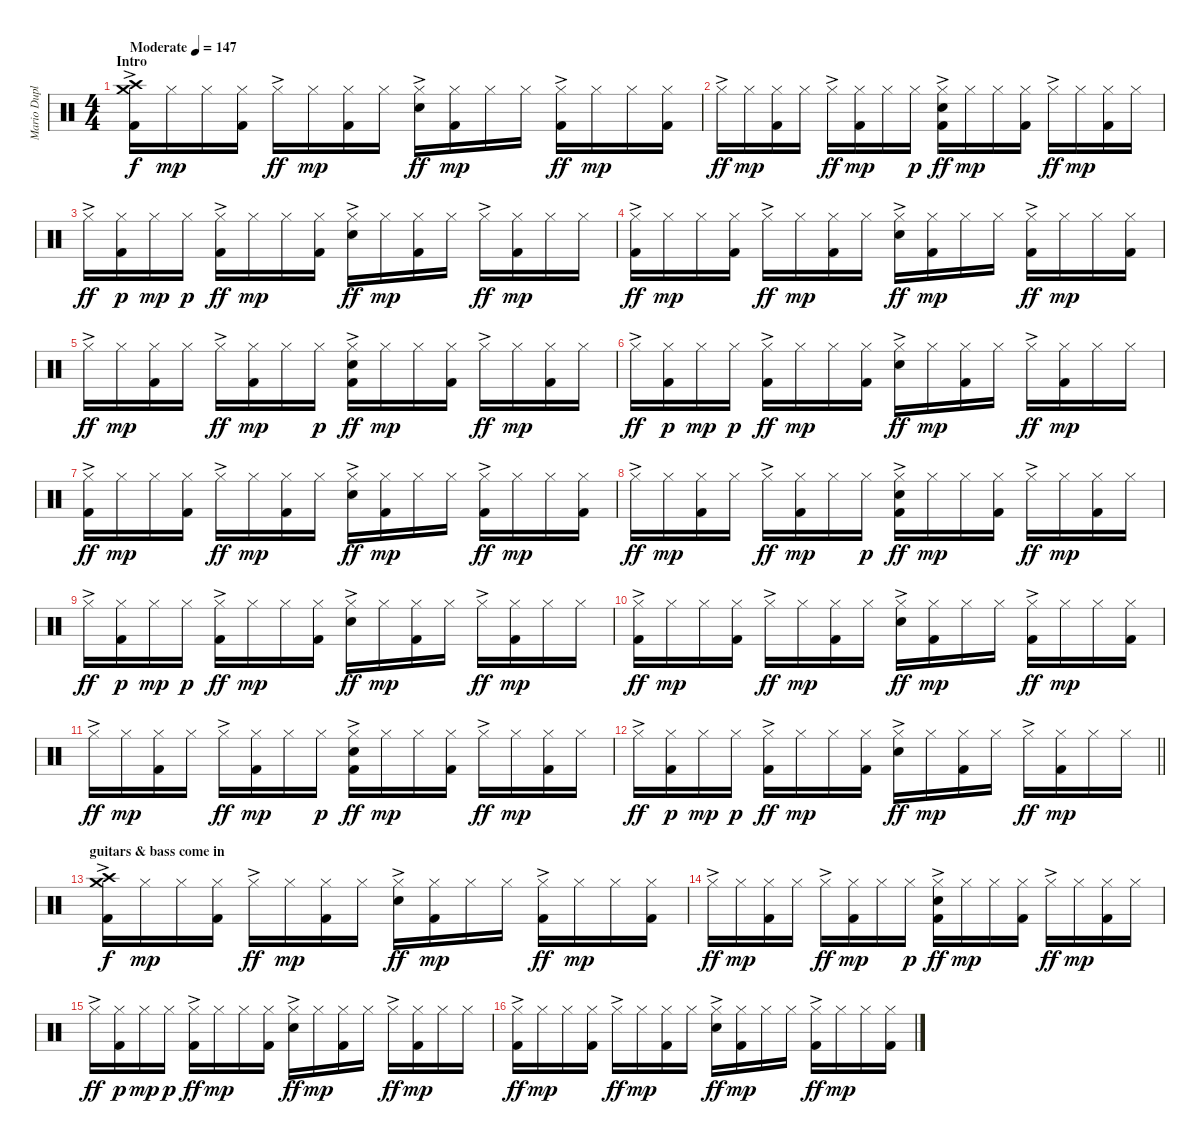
\track ("Mario Duplantier - DRUMS" "Mario Dupl") {instrument percussion}
\staff {score}
\articulation defaults
\ts (4 4)
\section ("" "Intro")
\tempo (147 "Moderate")
\clef neutral
\ks c
("Crash medium (hit)" "Crash high (hit)"{ac} "Kick (hit) 2").16{dy f} "Hi-Hat (closed)".16{dy mp} "Hi-Hat (closed)".16 ("Hi-Hat (closed)" "Kick (hit) 2").16 "Hi-Hat (closed)"{ac}.16{dy ff} "Hi-Hat (closed)".16{dy mp} ("Hi-Hat (closed)" "Kick (hit) 2").16 "Hi-Hat (closed)".16 ("Hi-Hat (closed)"{ac} "Electric Snare (hit)").16{dy ff} ("Hi-Hat (closed)" "Kick (hit) 2").16{dy mp} "Hi-Hat (closed)".16 "Hi-Hat (closed)".16 ("Hi-Hat (closed)"{ac} "Kick (hit) 2").16{dy ff} "Hi-Hat (closed)".16{dy mp} "Hi-Hat (closed)".16 ("Hi-Hat (closed)" "Kick (hit) 2").16 |
"Hi-Hat (closed)"{ac}.16{dy ff} "Hi-Hat (closed)".16{dy mp} ("Hi-Hat (closed)" "Kick (hit) 2").16 "Hi-Hat (closed)".16 "Hi-Hat (closed)"{ac}.16{dy ff} ("Hi-Hat (closed)" "Kick (hit) 2").16{dy mp} "Hi-Hat (closed)".16 "Hi-Hat (closed)".16{dy p} ("Hi-Hat (closed)"{ac} "Electric Snare (hit)" "Kick (hit) 2").16{dy ff} "Hi-Hat (closed)".16{dy mp} "Hi-Hat (closed)".16 ("Hi-Hat (closed)" "Kick (hit) 2").16 "Hi-Hat (closed)"{ac}.16{dy ff} "Hi-Hat (closed)".16{dy mp} ("Hi-Hat (closed)" "Kick (hit) 2").16 "Hi-Hat (closed)".16 |
"Hi-Hat (closed)"{ac}.16{dy ff} ("Hi-Hat (closed)" "Kick (hit) 2").16{dy p} "Hi-Hat (closed)".16{dy mp} "Hi-Hat (closed)".16{dy p} ("Hi-Hat (closed)"{ac} "Kick (hit) 2").16{dy ff} "Hi-Hat (closed)".16{dy mp} "Hi-Hat (closed)".16 ("Hi-Hat (closed)" "Kick (hit) 2").16 ("Hi-Hat (closed)"{ac} "Electric Snare (hit)").16{dy ff} "Hi-Hat (closed)".16{dy mp} ("Hi-Hat (closed)" "Kick (hit) 2").16 "Hi-Hat (closed)".16 "Hi-Hat (closed)"{ac}.16{dy ff} ("Hi-Hat (closed)" "Kick (hit) 2").16{dy mp} "Hi-Hat (closed)".16 "Hi-Hat (closed)".16 |
("Hi-Hat (closed)"{ac} "Kick (hit) 2").16{dy ff} "Hi-Hat (closed)".16{dy mp} "Hi-Hat (closed)".16 ("Hi-Hat (closed)" "Kick (hit) 2").16 "Hi-Hat (closed)"{ac}.16{dy ff} "Hi-Hat (closed)".16{dy mp} ("Hi-Hat (closed)" "Kick (hit) 2").16 "Hi-Hat (closed)".16 ("Hi-Hat (closed)"{ac} "Electric Snare (hit)").16{dy ff} ("Hi-Hat (closed)" "Kick (hit) 2").16{dy mp} "Hi-Hat (closed)".16 "Hi-Hat (closed)".16 ("Hi-Hat (closed)"{ac} "Kick (hit) 2").16{dy ff} "Hi-Hat (closed)".16{dy mp} "Hi-Hat (closed)".16 ("Hi-Hat (closed)" "Kick (hit) 2").16 |
"Hi-Hat (closed)"{ac}.16{dy ff} "Hi-Hat (closed)".16{dy mp} ("Hi-Hat (closed)" "Kick (hit) 2").16 "Hi-Hat (closed)".16 "Hi-Hat (closed)"{ac}.16{dy ff} ("Hi-Hat (closed)" "Kick (hit) 2").16{dy mp} "Hi-Hat (closed)".16 "Hi-Hat (closed)".16{dy p} ("Hi-Hat (closed)"{ac} "Electric Snare (hit)" "Kick (hit) 2").16{dy ff} "Hi-Hat (closed)".16{dy mp} "Hi-Hat (closed)".16 ("Hi-Hat (closed)" "Kick (hit) 2").16 "Hi-Hat (closed)"{ac}.16{dy ff} "Hi-Hat (closed)".16{dy mp} ("Hi-Hat (closed)" "Kick (hit) 2").16 "Hi-Hat (closed)".16 |
"Hi-Hat (closed)"{ac}.16{dy ff} ("Hi-Hat (closed)" "Kick (hit) 2").16{dy p} "Hi-Hat (closed)".16{dy mp} "Hi-Hat (closed)".16{dy p} ("Hi-Hat (closed)"{ac} "Kick (hit) 2").16{dy ff} "Hi-Hat (closed)".16{dy mp} "Hi-Hat (closed)".16 ("Hi-Hat (closed)" "Kick (hit) 2").16 ("Hi-Hat (closed)"{ac} "Electric Snare (hit)").16{dy ff} "Hi-Hat (closed)".16{dy mp} ("Hi-Hat (closed)" "Kick (hit) 2").16 "Hi-Hat (closed)".16 "Hi-Hat (closed)"{ac}.16{dy ff} ("Hi-Hat (closed)" "Kick (hit) 2").16{dy mp} "Hi-Hat (closed)".16 "Hi-Hat (closed)".16 |
("Hi-Hat (closed)"{ac} "Kick (hit) 2").16{dy ff} "Hi-Hat (closed)".16{dy mp} "Hi-Hat (closed)".16 ("Hi-Hat (closed)" "Kick (hit) 2").16 "Hi-Hat (closed)"{ac}.16{dy ff} "Hi-Hat (closed)".16{dy mp} ("Hi-Hat (closed)" "Kick (hit) 2").16 "Hi-Hat (closed)".16 ("Hi-Hat (closed)"{ac} "Electric Snare (hit)").16{dy ff} ("Hi-Hat (closed)" "Kick (hit) 2").16{dy mp} "Hi-Hat (closed)".16 "Hi-Hat (closed)".16 ("Hi-Hat (closed)"{ac} "Kick (hit) 2").16{dy ff} "Hi-Hat (closed)".16{dy mp} "Hi-Hat (closed)".16 ("Hi-Hat (closed)" "Kick (hit) 2").16 |
"Hi-Hat (closed)"{ac}.16{dy ff} "Hi-Hat (closed)".16{dy mp} ("Hi-Hat (closed)" "Kick (hit) 2").16 "Hi-Hat (closed)".16 "Hi-Hat (closed)"{ac}.16{dy ff} ("Hi-Hat (closed)" "Kick (hit) 2").16{dy mp} "Hi-Hat (closed)".16 "Hi-Hat (closed)".16{dy p} ("Hi-Hat (closed)"{ac} "Electric Snare (hit)" "Kick (hit) 2").16{dy ff} "Hi-Hat (closed)".16{dy mp} "Hi-Hat (closed)".16 ("Hi-Hat (closed)" "Kick (hit) 2").16 "Hi-Hat (closed)"{ac}.16{dy ff} "Hi-Hat (closed)".16{dy mp} ("Hi-Hat (closed)" "Kick (hit) 2").16 "Hi-Hat (closed)".16 |
"Hi-Hat (closed)"{ac}.16{dy ff} ("Hi-Hat (closed)" "Kick (hit) 2").16{dy p} "Hi-Hat (closed)".16{dy mp} "Hi-Hat (closed)".16{dy p} ("Hi-Hat (closed)"{ac} "Kick (hit) 2").16{dy ff} "Hi-Hat (closed)".16{dy mp} "Hi-Hat (closed)".16 ("Hi-Hat (closed)" "Kick (hit) 2").16 ("Hi-Hat (closed)"{ac} "Electric Snare (hit)").16{dy ff} "Hi-Hat (closed)".16{dy mp} ("Hi-Hat (closed)" "Kick (hit) 2").16 "Hi-Hat (closed)".16 "Hi-Hat (closed)"{ac}.16{dy ff} ("Hi-Hat (closed)" "Kick (hit) 2").16{dy mp} "Hi-Hat (closed)".16 "Hi-Hat (closed)".16 |
("Hi-Hat (closed)"{ac} "Kick (hit) 2").16{dy ff} "Hi-Hat (closed)".16{dy mp} "Hi-Hat (closed)".16 ("Hi-Hat (closed)" "Kick (hit) 2").16 "Hi-Hat (closed)"{ac}.16{dy ff} "Hi-Hat (closed)".16{dy mp} ("Hi-Hat (closed)" "Kick (hit) 2").16 "Hi-Hat (closed)".16 ("Hi-Hat (closed)"{ac} "Electric Snare (hit)").16{dy ff} ("Hi-Hat (closed)" "Kick (hit) 2").16{dy mp} "Hi-Hat (closed)".16 "Hi-Hat (closed)".16 ("Hi-Hat (closed)"{ac} "Kick (hit) 2").16{dy ff} "Hi-Hat (closed)".16{dy mp} "Hi-Hat (closed)".16 ("Hi-Hat (closed)" "Kick (hit) 2").16 |
"Hi-Hat (closed)"{ac}.16{dy ff} "Hi-Hat (closed)".16{dy mp} ("Hi-Hat (closed)" "Kick (hit) 2").16 "Hi-Hat (closed)".16 "Hi-Hat (closed)"{ac}.16{dy ff} ("Hi-Hat (closed)" "Kick (hit) 2").16{dy mp} "Hi-Hat (closed)".16 "Hi-Hat (closed)".16{dy p} ("Hi-Hat (closed)"{ac} "Electric Snare (hit)" "Kick (hit) 2").16{dy ff} "Hi-Hat (closed)".16{dy mp} "Hi-Hat (closed)".16 ("Hi-Hat (closed)" "Kick (hit) 2").16 "Hi-Hat (closed)"{ac}.16{dy ff} "Hi-Hat (closed)".16{dy mp} ("Hi-Hat (closed)" "Kick (hit) 2").16 "Hi-Hat (closed)".16 |
\barLineRight lightlight "Hi-Hat (closed)"{ac}.16{dy ff}
("Hi-Hat (closed)" "Kick (hit) 2").16{dy p} "Hi-Hat (closed)".16{dy mp} "Hi-Hat (closed)".16{dy p} ("Hi-Hat (closed)"{ac} "Kick (hit) 2").16{dy ff} "Hi-Hat (closed)".16{dy mp} "Hi-Hat (closed)".16 ("Hi-Hat (closed)" "Kick (hit) 2").16 ("Hi-Hat (closed)"{ac} "Electric Snare (hit)").16{dy ff} "Hi-Hat (closed)".16{dy mp} ("Hi-Hat (closed)" "Kick (hit) 2").16 "Hi-Hat (closed)".16 "Hi-Hat (closed)"{ac}.16{dy ff} ("Hi-Hat (closed)" "Kick (hit) 2").16{dy mp} "Hi-Hat (closed)".16 "Hi-Hat (closed)".16 |
\section ("" "guitars & bass come in")
("Crash medium (hit)" "Crash high (hit)"{ac} "Kick (hit) 2").16{dy f} "Hi-Hat (closed)".16{dy mp} "Hi-Hat (closed)".16 ("Hi-Hat (closed)" "Kick (hit) 2").16 "Hi-Hat (closed)"{ac}.16{dy ff} "Hi-Hat (closed)".16{dy mp} ("Hi-Hat (closed)" "Kick (hit) 2").16 "Hi-Hat (closed)".16 ("Hi-Hat (closed)"{ac} "Electric Snare (hit)").16{dy ff} ("Hi-Hat (closed)" "Kick (hit) 2").16{dy mp} "Hi-Hat (closed)".16 "Hi-Hat (closed)".16 ("Hi-Hat (closed)"{ac} "Kick (hit) 2").16{dy ff} "Hi-Hat (closed)".16{dy mp} "Hi-Hat (closed)".16 ("Hi-Hat (closed)" "Kick (hit) 2").16 |
"Hi-Hat (closed)"{ac}.16{dy ff} "Hi-Hat (closed)".16{dy mp} ("Hi-Hat (closed)" "Kick (hit) 2").16 "Hi-Hat (closed)".16 "Hi-Hat (closed)"{ac}.16{dy ff} ("Hi-Hat (closed)" "Kick (hit) 2").16{dy mp} "Hi-Hat (closed)".16 "Hi-Hat (closed)".16{dy p} ("Hi-Hat (closed)"{ac} "Electric Snare (hit)" "Kick (hit) 2").16{dy ff} "Hi-Hat (closed)".16{dy mp} "Hi-Hat (closed)".16 ("Hi-Hat (closed)" "Kick (hit) 2").16 "Hi-Hat (closed)"{ac}.16{dy ff} "Hi-Hat (closed)".16{dy mp} ("Hi-Hat (closed)" "Kick (hit) 2").16 "Hi-Hat (closed)".16 |
"Hi-Hat (closed)"{ac}.16{dy ff} ("Hi-Hat (closed)" "Kick (hit) 2").16{dy p} "Hi-Hat (closed)".16{dy mp} "Hi-Hat (closed)".16{dy p} ("Hi-Hat (closed)"{ac} "Kick (hit) 2").16{dy ff} "Hi-Hat (closed)".16{dy mp} "Hi-Hat (closed)".16 ("Hi-Hat (closed)" "Kick (hit) 2").16 ("Hi-Hat (closed)"{ac} "Electric Snare (hit)").16{dy ff} "Hi-Hat (closed)".16{dy mp} ("Hi-Hat (closed)" "Kick (hit) 2").16 "Hi-Hat (closed)".16 "Hi-Hat (closed)"{ac}.16{dy ff} ("Hi-Hat (closed)" "Kick (hit) 2").16{dy mp} "Hi-Hat (closed)".16 "Hi-Hat (closed)".16 |
("Hi-Hat (closed)"{ac} "Kick (hit) 2").16{dy ff} "Hi-Hat (closed)".16{dy mp} "Hi-Hat (closed)".16 ("Hi-Hat (closed)" "Kick (hit) 2").16 "Hi-Hat (closed)"{ac}.16{dy ff} "Hi-Hat (closed)".16{dy mp} ("Hi-Hat (closed)" "Kick (hit) 2").16 "Hi-Hat (closed)".16 ("Hi-Hat (closed)"{ac} "Electric Snare (hit)").16{dy ff} ("Hi-Hat (closed)" "Kick (hit) 2").16{dy mp} "Hi-Hat (closed)".16 "Hi-Hat (closed)".16 ("Hi-Hat (closed)"{ac} "Kick (hit) 2").16{dy ff} "Hi-Hat (closed)".16{dy mp} "Hi-Hat (closed)".16 ("Hi-Hat (closed)" "Kick (hit) 2").16
